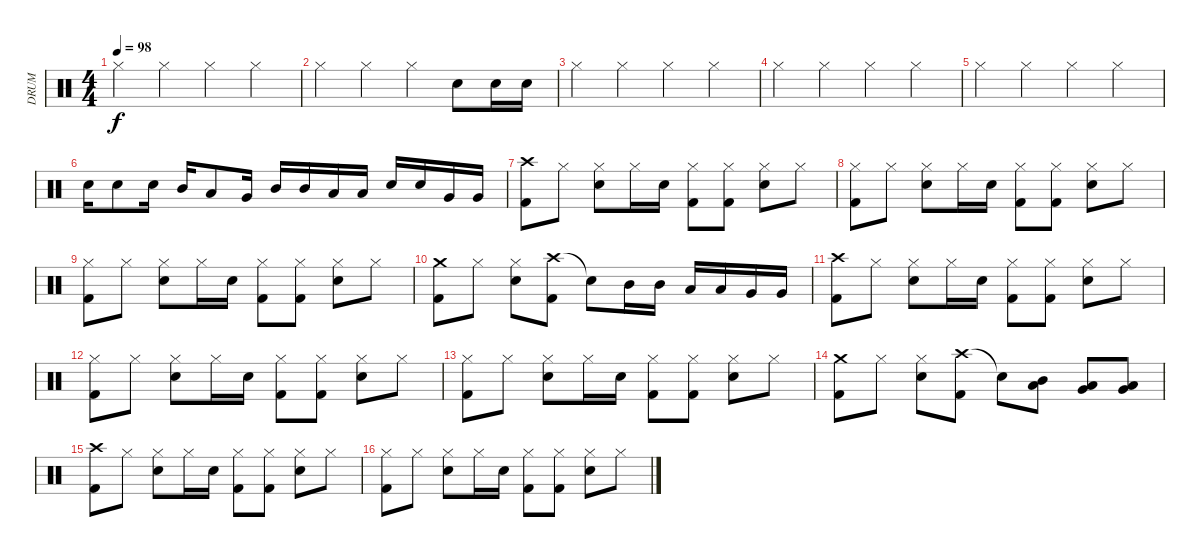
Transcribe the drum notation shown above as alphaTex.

\track ("DRUM" "DRUM") {instrument percussion}
\staff {score}
\articulation defaults
\ts (4 4)
\tempo 98
\clef neutral
\ks c "Hi-Hat (closed)".4{dy f} "Hi-Hat (closed)".4 "Hi-Hat (closed)".4 "Hi-Hat (closed)".4
|
"Hi-Hat (closed)".4 "Hi-Hat (closed)".4 "Hi-Hat (closed)".4 "Snare (hit) 2".8 "Snare (hit) 2".16 "Snare (hit) 2".16 |
"Hi-Hat (closed)".4 "Hi-Hat (closed)".4 "Hi-Hat (closed)".4 "Hi-Hat (closed)".4 |
"Hi-Hat (closed)".4 "Hi-Hat (closed)".4 "Hi-Hat (closed)".4 "Hi-Hat (closed)".4 |
"Hi-Hat (closed)".4 "Hi-Hat (closed)".4 "Hi-Hat (closed)".4 "Hi-Hat (closed)".4 |
"Snare (hit) 2".16 "Snare (hit) 2".8 "Snare (hit) 2".16 "Mid Tom (hit)".16 "Low Tom (hit)".8 "Very Low Tom (hit)".16 "Mid Tom (hit)".16 "Mid Tom (hit)".16 "Low Tom (hit)".16 "Low Tom (hit)".16 "Snare (hit) 2".16 "Snare (hit) 2".16 "Very Low Tom (hit)".16 "Very Low Tom (hit)".16 |
("Crash high (hit)" "Kick (hit) 2").8 "Hi-Hat (closed)".8 ("Snare (hit) 2" "Hi-Hat (closed)").8 "Hi-Hat (closed)".16 "Snare (hit) 2".16 ("Hi-Hat (closed)" "Kick (hit) 2").8 ("Hi-Hat (closed)" "Kick (hit) 2").8 ("Snare (hit) 2" "Hi-Hat (closed)").8 "Hi-Hat (closed)".8 |
("Hi-Hat (closed)" "Kick (hit) 2").8 "Hi-Hat (closed)".8 ("Snare (hit) 2" "Hi-Hat (closed)").8 "Hi-Hat (closed)".16 "Snare (hit) 2".16 ("Hi-Hat (closed)" "Kick (hit) 2").8 ("Hi-Hat (closed)" "Kick (hit) 2").8 ("Snare (hit) 2" "Hi-Hat (closed)").8 "Hi-Hat (closed)".8 |
("Hi-Hat (closed)" "Kick (hit) 2").8 "Hi-Hat (closed)".8 ("Snare (hit) 2" "Hi-Hat (closed)").8 "Hi-Hat (closed)".16 "Snare (hit) 2".16 ("Hi-Hat (closed)" "Kick (hit) 2").8 ("Hi-Hat (closed)" "Kick (hit) 2").8 ("Snare (hit) 2" "Hi-Hat (closed)").8 "Hi-Hat (closed)".8 |
("Crash medium (hit)" "Kick (hit) 2").8 "Hi-Hat (closed)".8 ("Snare (hit) 2" "Hi-Hat (closed)").8 ("Crash high (hit)" "Kick (hit) 2").8 "Snare (hit)"{t}.8 "Mid Tom (hit)".16 "Mid Tom (hit)".16 "Low Tom (hit)".16 "Low Tom (hit)".16 "Very Low Tom (hit)".16 "Very Low Tom (hit)".16 |
("Crash high (hit)" "Kick (hit) 2").8 "Hi-Hat (closed)".8 ("Snare (hit) 2" "Hi-Hat (closed)").8 "Hi-Hat (closed)".16 "Snare (hit) 2".16 ("Hi-Hat (closed)" "Kick (hit) 2").8 ("Hi-Hat (closed)" "Kick (hit) 2").8 ("Snare (hit) 2" "Hi-Hat (closed)").8 "Hi-Hat (closed)".8 |
("Hi-Hat (closed)" "Kick (hit) 2").8 "Hi-Hat (closed)".8 ("Snare (hit) 2" "Hi-Hat (closed)").8 "Hi-Hat (closed)".16 "Snare (hit) 2".16 ("Hi-Hat (closed)" "Kick (hit) 2").8 ("Hi-Hat (closed)" "Kick (hit) 2").8 ("Snare (hit) 2" "Hi-Hat (closed)").8 "Hi-Hat (closed)".8 |
("Hi-Hat (closed)" "Kick (hit) 2").8 "Hi-Hat (closed)".8 ("Snare (hit) 2" "Hi-Hat (closed)").8 "Hi-Hat (closed)".16 "Snare (hit) 2".16 ("Hi-Hat (closed)" "Kick (hit) 2").8 ("Hi-Hat (closed)" "Kick (hit) 2").8 ("Snare (hit) 2" "Hi-Hat (closed)").8 "Hi-Hat (closed)".8 |
("Crash medium (hit)" "Kick (hit) 2").8 "Hi-Hat (closed)".8 ("Snare (hit) 2" "Hi-Hat (closed)").8 ("Crash high (hit)" "Kick (hit) 2").8 "Snare (hit)"{t}.8 ("Mid Tom (hit)" "Low Tom (hit)").8 ("Low Tom (hit)" "Very Low Tom (hit)").8 ("Very Low Tom (hit)" "Low Floor Tom (hit)").8 |
("Crash high (hit)" "Kick (hit) 2").8 "Hi-Hat (closed)".8 ("Snare (hit) 2" "Hi-Hat (closed)").8 "Hi-Hat (closed)".16 "Snare (hit) 2".16 ("Hi-Hat (closed)" "Kick (hit) 2").8 ("Hi-Hat (closed)" "Kick (hit) 2").8 ("Snare (hit) 2" "Hi-Hat (closed)").8 "Hi-Hat (closed)".8 |
("Hi-Hat (closed)" "Kick (hit) 2").8 "Hi-Hat (closed)".8 ("Snare (hit) 2" "Hi-Hat (closed)").8 "Hi-Hat (closed)".16 "Snare (hit) 2".16 ("Hi-Hat (closed)" "Kick (hit) 2").8 ("Hi-Hat (closed)" "Kick (hit) 2").8 ("Snare (hit) 2" "Hi-Hat (closed)").8 "Hi-Hat (closed)".8
